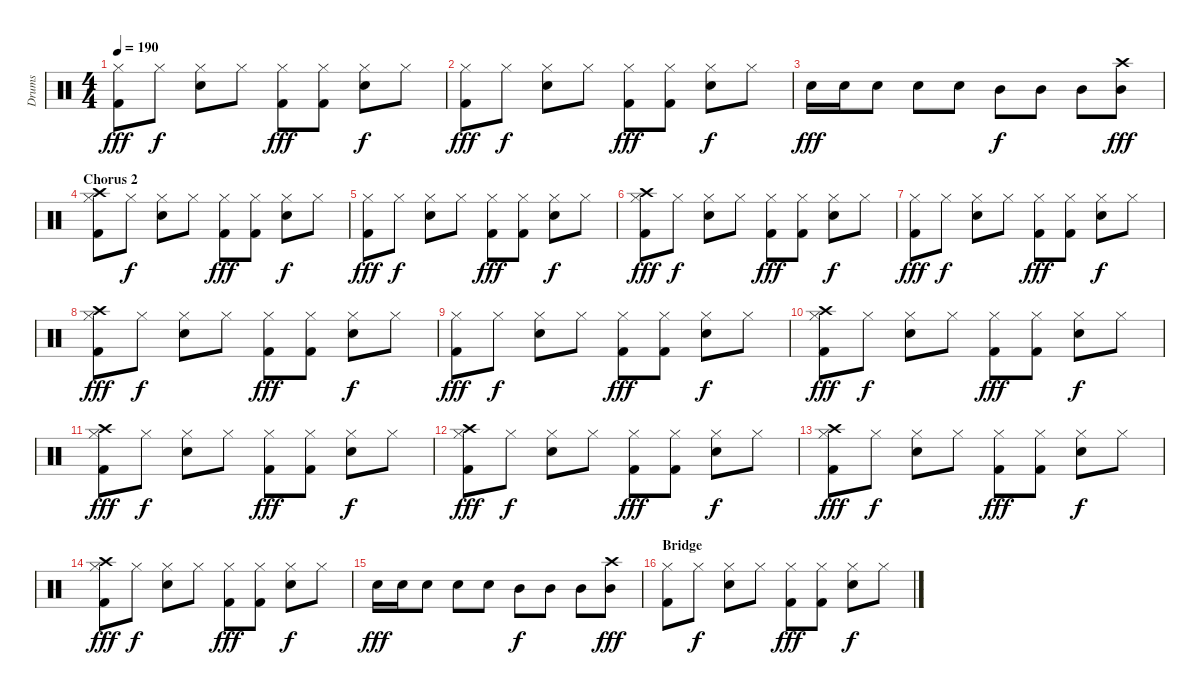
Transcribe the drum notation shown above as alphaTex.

\track ("Drums" "Drums") {instrument percussion}
\staff {score}
\articulation defaults
\ts (4 4)
\tempo 190
\clef neutral
\ks c
("Hi-Hat (closed)" "Kick (hit) 2").8{dy fff} "Hi-Hat (closed)".8{dy f} ("Hi-Hat (closed)" "Electric Snare (hit)").8 "Hi-Hat (closed)".8 ("Hi-Hat (closed)" "Kick (hit) 2").8{dy fff} ("Hi-Hat (closed)" "Kick (hit) 2").8 ("Hi-Hat (closed)" "Electric Snare (hit)").8{dy f} "Hi-Hat (closed)".8 |
("Hi-Hat (closed)" "Kick (hit) 2").8{dy fff} "Hi-Hat (closed)".8{dy f} ("Hi-Hat (closed)" "Electric Snare (hit)").8 "Hi-Hat (closed)".8 ("Hi-Hat (closed)" "Kick (hit) 2").8{dy fff} ("Hi-Hat (closed)" "Kick (hit) 2").8 ("Hi-Hat (closed)" "Electric Snare (hit)").8{dy f} "Hi-Hat (closed)".8 |
"Electric Snare (hit)".16{dy fff} "Electric Snare (hit)".16 "Electric Snare (hit)".8 "Electric Snare (hit)".8 "Electric Snare (hit)".8 "Mid Tom (hit)".8{dy f} "Mid Tom (hit)".8 "Mid Tom (hit)".8 ("Crash high (hit)" "Mid Tom (hit)").8{dy fff} |
\section ("" "Chorus 2")
("Crash high (hit)" "Hi-Hat (closed)" "Kick (hit) 2").8 "Hi-Hat (closed)".8{dy f} ("Hi-Hat (closed)" "Electric Snare (hit)").8 "Hi-Hat (closed)".8 ("Hi-Hat (closed)" "Kick (hit) 2").8{dy fff} ("Hi-Hat (closed)" "Kick (hit) 2").8 ("Hi-Hat (closed)" "Electric Snare (hit)").8{dy f} "Hi-Hat (closed)".8 |
("Hi-Hat (closed)" "Kick (hit) 2").8{dy fff} "Hi-Hat (closed)".8{dy f} ("Hi-Hat (closed)" "Electric Snare (hit)").8 "Hi-Hat (closed)".8 ("Hi-Hat (closed)" "Kick (hit) 2").8{dy fff} ("Hi-Hat (closed)" "Kick (hit) 2").8 ("Hi-Hat (closed)" "Electric Snare (hit)").8{dy f} "Hi-Hat (closed)".8 |
("Crash high (hit)" "Hi-Hat (closed)" "Kick (hit) 2").8{dy fff} "Hi-Hat (closed)".8{dy f} ("Hi-Hat (closed)" "Electric Snare (hit)").8 "Hi-Hat (closed)".8 ("Hi-Hat (closed)" "Kick (hit) 2").8{dy fff} ("Hi-Hat (closed)" "Kick (hit) 2").8 ("Hi-Hat (closed)" "Electric Snare (hit)").8{dy f} "Hi-Hat (closed)".8 |
("Hi-Hat (closed)" "Kick (hit) 2").8{dy fff} "Hi-Hat (closed)".8{dy f} ("Hi-Hat (closed)" "Electric Snare (hit)").8 "Hi-Hat (closed)".8 ("Hi-Hat (closed)" "Kick (hit) 2").8{dy fff} ("Hi-Hat (closed)" "Kick (hit) 2").8 ("Hi-Hat (closed)" "Electric Snare (hit)").8{dy f} "Hi-Hat (closed)".8 |
("Crash high (hit)" "Hi-Hat (closed)" "Kick (hit) 2").8{dy fff} "Hi-Hat (closed)".8{dy f} ("Hi-Hat (closed)" "Electric Snare (hit)").8 "Hi-Hat (closed)".8 ("Hi-Hat (closed)" "Kick (hit) 2").8{dy fff} ("Hi-Hat (closed)" "Kick (hit) 2").8 ("Hi-Hat (closed)" "Electric Snare (hit)").8{dy f} "Hi-Hat (closed)".8 |
("Hi-Hat (closed)" "Kick (hit) 2").8{dy fff} "Hi-Hat (closed)".8{dy f} ("Hi-Hat (closed)" "Electric Snare (hit)").8 "Hi-Hat (closed)".8 ("Hi-Hat (closed)" "Kick (hit) 2").8{dy fff} ("Hi-Hat (closed)" "Kick (hit) 2").8 ("Hi-Hat (closed)" "Electric Snare (hit)").8{dy f} "Hi-Hat (closed)".8 |
("Crash high (hit)" "Hi-Hat (closed)" "Kick (hit) 2").8{dy fff} "Hi-Hat (closed)".8{dy f} ("Hi-Hat (closed)" "Electric Snare (hit)").8 "Hi-Hat (closed)".8 ("Hi-Hat (closed)" "Kick (hit) 2").8{dy fff} ("Hi-Hat (closed)" "Kick (hit) 2").8 ("Hi-Hat (closed)" "Electric Snare (hit)").8{dy f} "Hi-Hat (closed)".8 |
("Crash high (hit)" "Hi-Hat (closed)" "Kick (hit) 2").8{dy fff} "Hi-Hat (closed)".8{dy f} ("Hi-Hat (closed)" "Electric Snare (hit)").8 "Hi-Hat (closed)".8 ("Hi-Hat (closed)" "Kick (hit) 2").8{dy fff} ("Hi-Hat (closed)" "Kick (hit) 2").8 ("Hi-Hat (closed)" "Electric Snare (hit)").8{dy f} "Hi-Hat (closed)".8 |
("Crash high (hit)" "Hi-Hat (closed)" "Kick (hit) 2").8{dy fff} "Hi-Hat (closed)".8{dy f} ("Hi-Hat (closed)" "Electric Snare (hit)").8 "Hi-Hat (closed)".8 ("Hi-Hat (closed)" "Kick (hit) 2").8{dy fff} ("Hi-Hat (closed)" "Kick (hit) 2").8 ("Hi-Hat (closed)" "Electric Snare (hit)").8{dy f} "Hi-Hat (closed)".8 |
("Crash high (hit)" "Hi-Hat (closed)" "Kick (hit) 2").8{dy fff} "Hi-Hat (closed)".8{dy f} ("Hi-Hat (closed)" "Electric Snare (hit)").8 "Hi-Hat (closed)".8 ("Hi-Hat (closed)" "Kick (hit) 2").8{dy fff} ("Hi-Hat (closed)" "Kick (hit) 2").8 ("Hi-Hat (closed)" "Electric Snare (hit)").8{dy f} "Hi-Hat (closed)".8 |
("Crash high (hit)" "Hi-Hat (closed)" "Kick (hit) 2").8{dy fff} "Hi-Hat (closed)".8{dy f} ("Hi-Hat (closed)" "Electric Snare (hit)").8 "Hi-Hat (closed)".8 ("Hi-Hat (closed)" "Kick (hit) 2").8{dy fff} ("Hi-Hat (closed)" "Kick (hit) 2").8 ("Hi-Hat (closed)" "Electric Snare (hit)").8{dy f} "Hi-Hat (closed)".8 |
"Electric Snare (hit)".16{dy fff} "Electric Snare (hit)".16 "Electric Snare (hit)".8 "Electric Snare (hit)".8 "Electric Snare (hit)".8 "Mid Tom (hit)".8{dy f} "Mid Tom (hit)".8 "Mid Tom (hit)".8 ("Crash high (hit)" "Mid Tom (hit)").8{dy fff} |
\section ("" "Bridge")
("Hi-Hat (closed)" "Kick (hit) 2").8 "Hi-Hat (closed)".8{dy f} ("Hi-Hat (closed)" "Electric Snare (hit)").8 "Hi-Hat (closed)".8 ("Hi-Hat (closed)" "Kick (hit) 2").8{dy fff} ("Hi-Hat (closed)" "Kick (hit) 2").8 ("Hi-Hat (closed)" "Electric Snare (hit)").8{dy f} "Hi-Hat (closed)".8
